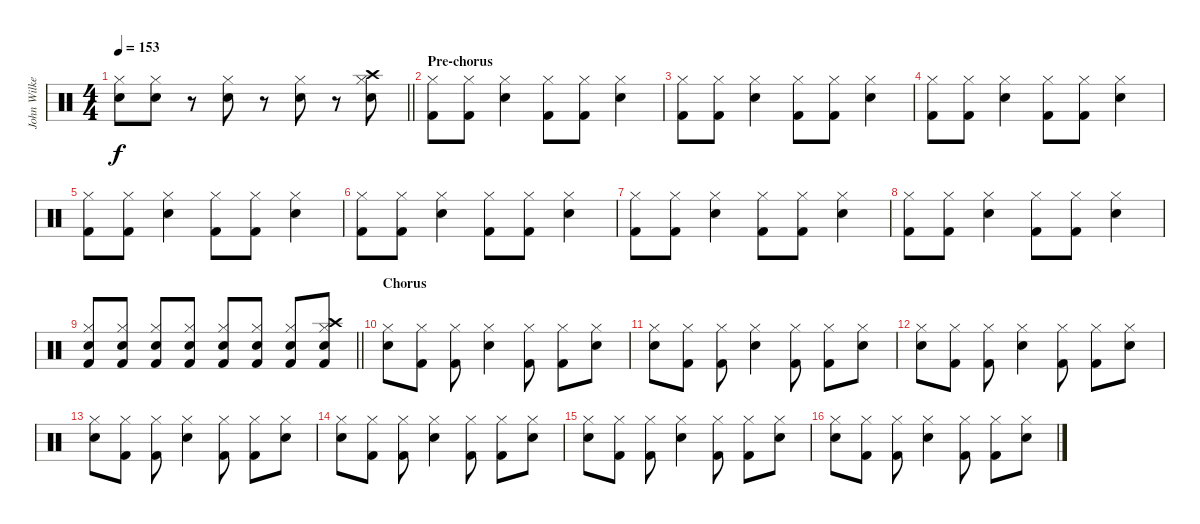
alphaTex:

\track ("John Wilkes (Percussion)" "John Wilke") {instrument percussion}
\staff {score}
\articulation defaults
\ts (4 4)
\tempo 153
\clef neutral
\barLineRight lightlight
\ks c
("Snare (hit) 2" "Hi-Hat (closed)").8{dy f} ("Snare (hit) 2" "Hi-Hat (closed)").8 r.8 ("Snare (hit) 2" "Hi-Hat (closed)").8 r.8 ("Snare (hit) 2" "Hi-Hat (closed)").8 r.8 ("Snare (hit) 2" "Hi-Hat (closed)" "Crash high (hit)").8 |
\section ("" "Pre-chorus")
("Kick (hit) 2" "Hi-Hat (closed)").8 ("Kick (hit) 2" "Hi-Hat (closed)").8 ("Snare (hit) 2" "Hi-Hat (closed)").4 ("Kick (hit) 2" "Hi-Hat (closed)").8 ("Kick (hit) 2" "Hi-Hat (closed)").8 ("Snare (hit) 2" "Hi-Hat (closed)").4 |
("Kick (hit) 2" "Hi-Hat (closed)").8 ("Kick (hit) 2" "Hi-Hat (closed)").8 ("Snare (hit) 2" "Hi-Hat (closed)").4 ("Kick (hit) 2" "Hi-Hat (closed)").8 ("Kick (hit) 2" "Hi-Hat (closed)").8 ("Snare (hit) 2" "Hi-Hat (closed)").4 |
("Kick (hit) 2" "Hi-Hat (closed)").8 ("Kick (hit) 2" "Hi-Hat (closed)").8 ("Snare (hit) 2" "Hi-Hat (closed)").4 ("Kick (hit) 2" "Hi-Hat (closed)").8 ("Kick (hit) 2" "Hi-Hat (closed)").8 ("Snare (hit) 2" "Hi-Hat (closed)").4 |
("Kick (hit) 2" "Hi-Hat (closed)").8 ("Kick (hit) 2" "Hi-Hat (closed)").8 ("Snare (hit) 2" "Hi-Hat (closed)").4 ("Kick (hit) 2" "Hi-Hat (closed)").8 ("Kick (hit) 2" "Hi-Hat (closed)").8 ("Snare (hit) 2" "Hi-Hat (closed)").4 |
("Kick (hit) 2" "Hi-Hat (closed)").8 ("Kick (hit) 2" "Hi-Hat (closed)").8 ("Snare (hit) 2" "Hi-Hat (closed)").4 ("Kick (hit) 2" "Hi-Hat (closed)").8 ("Kick (hit) 2" "Hi-Hat (closed)").8 ("Snare (hit) 2" "Hi-Hat (closed)").4 |
("Kick (hit) 2" "Hi-Hat (closed)").8 ("Kick (hit) 2" "Hi-Hat (closed)").8 ("Snare (hit) 2" "Hi-Hat (closed)").4 ("Kick (hit) 2" "Hi-Hat (closed)").8 ("Kick (hit) 2" "Hi-Hat (closed)").8 ("Snare (hit) 2" "Hi-Hat (closed)").4 |
("Kick (hit) 2" "Hi-Hat (closed)").8 ("Kick (hit) 2" "Hi-Hat (closed)").8 ("Snare (hit) 2" "Hi-Hat (closed)").4 ("Kick (hit) 2" "Hi-Hat (closed)").8 ("Kick (hit) 2" "Hi-Hat (closed)").8 ("Snare (hit) 2" "Hi-Hat (closed)").4 |
\barLineRight lightlight
("Snare (hit) 2" "Hi-Hat (closed)" "Kick (hit) 2").8 ("Snare (hit) 2" "Hi-Hat (closed)" "Kick (hit) 2").8 ("Snare (hit) 2" "Hi-Hat (closed)" "Kick (hit) 2").8 ("Snare (hit) 2" "Hi-Hat (closed)" "Kick (hit) 2").8 ("Snare (hit) 2" "Hi-Hat (closed)" "Kick (hit) 2").8 ("Snare (hit) 2" "Hi-Hat (closed)" "Kick (hit) 2").8 ("Snare (hit) 2" "Hi-Hat (closed)" "Kick (hit) 2").8 ("Snare (hit) 2" "Crash high (hit)" "Hi-Hat (closed)" "Kick (hit) 2").8 |
\section ("" "Chorus")
("Snare (hit) 2" "Hi-Hat (closed)").8 ("Kick (hit) 2" "Hi-Hat (closed)").8 ("Kick (hit) 2" "Hi-Hat (closed)").8 ("Snare (hit) 2" "Hi-Hat (closed)").4 ("Kick (hit) 2" "Hi-Hat (closed)").8 ("Kick (hit) 2" "Hi-Hat (closed)").8 ("Snare (hit) 2" "Hi-Hat (closed)").8 |
("Snare (hit) 2" "Hi-Hat (closed)").8 ("Kick (hit) 2" "Hi-Hat (closed)").8 ("Kick (hit) 2" "Hi-Hat (closed)").8 ("Snare (hit) 2" "Hi-Hat (closed)").4 ("Kick (hit) 2" "Hi-Hat (closed)").8 ("Kick (hit) 2" "Hi-Hat (closed)").8 ("Snare (hit) 2" "Hi-Hat (closed)").8 |
("Snare (hit) 2" "Hi-Hat (closed)").8 ("Kick (hit) 2" "Hi-Hat (closed)").8 ("Kick (hit) 2" "Hi-Hat (closed)").8 ("Snare (hit) 2" "Hi-Hat (closed)").4 ("Kick (hit) 2" "Hi-Hat (closed)").8 ("Kick (hit) 2" "Hi-Hat (closed)").8 ("Snare (hit) 2" "Hi-Hat (closed)").8 |
("Snare (hit) 2" "Hi-Hat (closed)").8 ("Kick (hit) 2" "Hi-Hat (closed)").8 ("Kick (hit) 2" "Hi-Hat (closed)").8 ("Snare (hit) 2" "Hi-Hat (closed)").4 ("Kick (hit) 2" "Hi-Hat (closed)").8 ("Kick (hit) 2" "Hi-Hat (closed)").8 ("Snare (hit) 2" "Hi-Hat (closed)").8 |
("Snare (hit) 2" "Hi-Hat (closed)").8 ("Kick (hit) 2" "Hi-Hat (closed)").8 ("Kick (hit) 2" "Hi-Hat (closed)").8 ("Snare (hit) 2" "Hi-Hat (closed)").4 ("Kick (hit) 2" "Hi-Hat (closed)").8 ("Kick (hit) 2" "Hi-Hat (closed)").8 ("Snare (hit) 2" "Hi-Hat (closed)").8 |
("Snare (hit) 2" "Hi-Hat (closed)").8 ("Kick (hit) 2" "Hi-Hat (closed)").8 ("Kick (hit) 2" "Hi-Hat (closed)").8 ("Snare (hit) 2" "Hi-Hat (closed)").4 ("Kick (hit) 2" "Hi-Hat (closed)").8 ("Kick (hit) 2" "Hi-Hat (closed)").8 ("Snare (hit) 2" "Hi-Hat (closed)").8 |
("Snare (hit) 2" "Hi-Hat (closed)").8 ("Kick (hit) 2" "Hi-Hat (closed)").8 ("Kick (hit) 2" "Hi-Hat (closed)").8 ("Snare (hit) 2" "Hi-Hat (closed)").4 ("Kick (hit) 2" "Hi-Hat (closed)").8 ("Kick (hit) 2" "Hi-Hat (closed)").8 ("Snare (hit) 2" "Hi-Hat (closed)").8
